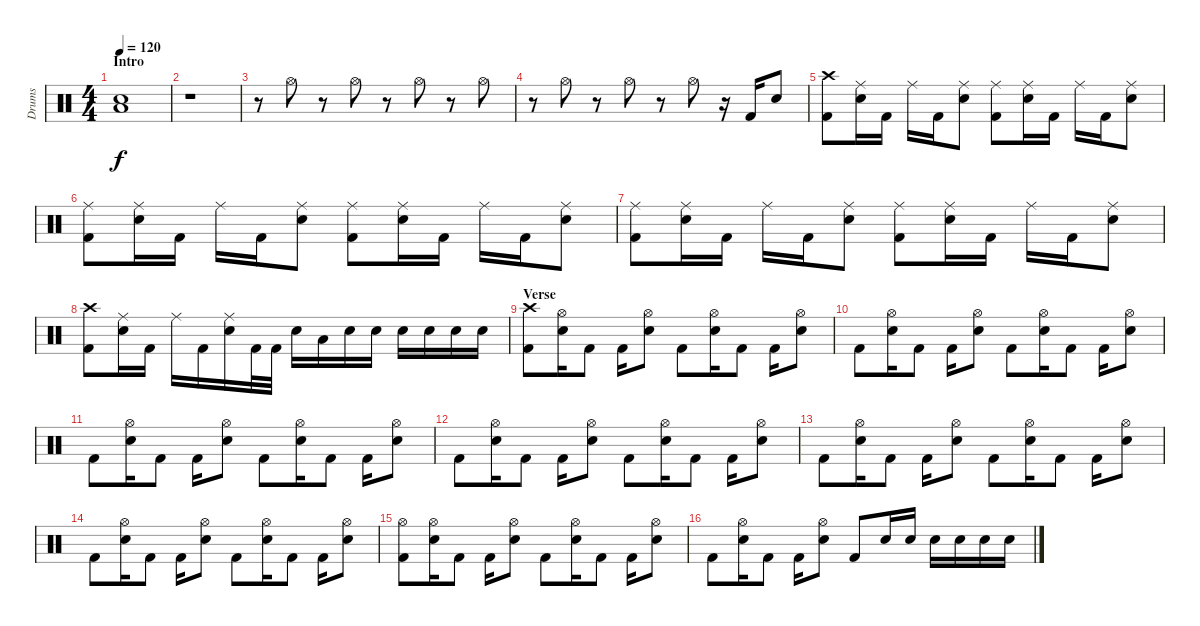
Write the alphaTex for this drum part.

\track ("Drums" "Drums") {instrument percussion}
\staff {score}
\articulation defaults
\ts (4 4)
\section ("" "Intro")
\tempo 120
\clef neutral
\ks c
("Low Floor Tom (hit)" "Snare (hit) 2").1{dy f} |
r.1 |
r.8 "Hi-Hat (open)".8 r.8 "Hi-Hat (open)".8 r.8 "Hi-Hat (open)".8 r.8 "Hi-Hat (open)".8 |
r.8 "Hi-Hat (open)".8 r.8 "Hi-Hat (open)".8 r.8 "Hi-Hat (open)".8 r.16 "Kick (hit) 2".16 "Snare (hit) 2".8 |
("Crash high (hit)" "Kick (hit) 2").8 ("Ride (middle)" "Snare (hit) 2").16 "Kick (hit) 2".16 "Ride (middle)".16 "Kick (hit) 2".16 ("Ride (middle)" "Snare (hit) 2").8 ("Ride (middle)" "Kick (hit) 2").8 ("Ride (middle)" "Snare (hit) 2").16 "Kick (hit) 2".16 "Ride (middle)".16 "Kick (hit) 2".16 ("Ride (middle)" "Snare (hit) 2").8 |
("Ride (middle)" "Kick (hit) 2").8 ("Ride (middle)" "Snare (hit) 2").16 "Kick (hit) 2".16 "Ride (middle)".16 "Kick (hit) 2".16 ("Ride (middle)" "Snare (hit) 2").8 ("Ride (middle)" "Kick (hit) 2").8 ("Ride (middle)" "Snare (hit) 2").16 "Kick (hit) 2".16 "Ride (middle)".16 "Kick (hit) 2".16 ("Ride (middle)" "Snare (hit) 2").8 |
("Ride (middle)" "Kick (hit) 2").8 ("Ride (middle)" "Snare (hit) 2").16 "Kick (hit) 2".16 "Ride (middle)".16 "Kick (hit) 2".16 ("Ride (middle)" "Snare (hit) 2").8 ("Ride (middle)" "Kick (hit) 2").8 ("Ride (middle)" "Snare (hit) 2").16 "Kick (hit) 2".16 "Ride (middle)".16 "Kick (hit) 2".16 ("Ride (middle)" "Snare (hit) 2").8 |
("Crash high (hit)" "Kick (hit) 2").8 ("Ride (middle)" "Snare (hit) 2").16 "Kick (hit) 2".16 "Ride (middle)".16 "Kick (hit) 2".16 ("Ride (middle)" "Snare (hit) 2").16 "Kick (hit) 2".32 "Kick (hit) 2".32 "Snare (hit) 2".16 "Low Tom (hit)".16 "Snare (hit) 2".16 "Snare (hit) 2".16 "Snare (hit) 2".16 "Snare (hit) 2".16 "Snare (hit) 2".16 "Snare (hit) 2".16 |
\section ("" "Verse")
("Crash high (hit)" "Kick (hit) 2").8 ("Hi-Hat (open)" "Snare (hit) 2").16 "Kick (hit) 2".8 "Kick (hit) 2".16 ("Hi-Hat (open)" "Snare (hit) 2").8 "Kick (hit) 2".8 ("Hi-Hat (open)" "Snare (hit) 2").16 "Kick (hit) 2".8 "Kick (hit) 2".16 ("Hi-Hat (open)" "Snare (hit) 2").8 |
"Kick (hit) 2".8 ("Hi-Hat (open)" "Snare (hit) 2").16 "Kick (hit) 2".8 "Kick (hit) 2".16 ("Hi-Hat (open)" "Snare (hit) 2").8 "Kick (hit) 2".8 ("Hi-Hat (open)" "Snare (hit) 2").16 "Kick (hit) 2".8 "Kick (hit) 2".16 ("Hi-Hat (open)" "Snare (hit) 2").8 |
"Kick (hit) 2".8 ("Hi-Hat (open)" "Snare (hit) 2").16 "Kick (hit) 2".8 "Kick (hit) 2".16 ("Hi-Hat (open)" "Snare (hit) 2").8 "Kick (hit) 2".8 ("Hi-Hat (open)" "Snare (hit) 2").16 "Kick (hit) 2".8 "Kick (hit) 2".16 ("Hi-Hat (open)" "Snare (hit) 2").8 |
"Kick (hit) 2".8 ("Hi-Hat (open)" "Snare (hit) 2").16 "Kick (hit) 2".8 "Kick (hit) 2".16 ("Hi-Hat (open)" "Snare (hit) 2").8 "Kick (hit) 2".8 ("Hi-Hat (open)" "Snare (hit) 2").16 "Kick (hit) 2".8 "Kick (hit) 2".16 ("Hi-Hat (open)" "Snare (hit) 2").8 |
"Kick (hit) 2".8 ("Hi-Hat (open)" "Snare (hit) 2").16 "Kick (hit) 2".8 "Kick (hit) 2".16 ("Hi-Hat (open)" "Snare (hit) 2").8 "Kick (hit) 2".8 ("Hi-Hat (open)" "Snare (hit) 2").16 "Kick (hit) 2".8 "Kick (hit) 2".16 ("Hi-Hat (open)" "Snare (hit) 2").8 |
"Kick (hit) 2".8 ("Hi-Hat (open)" "Snare (hit) 2").16 "Kick (hit) 2".8 "Kick (hit) 2".16 ("Hi-Hat (open)" "Snare (hit) 2").8 "Kick (hit) 2".8 ("Hi-Hat (open)" "Snare (hit) 2").16 "Kick (hit) 2".8 "Kick (hit) 2".16 ("Hi-Hat (open)" "Snare (hit) 2").8 |
("Hi-Hat (open)" "Kick (hit) 2").8 ("Hi-Hat (open)" "Snare (hit) 2").16 "Kick (hit) 2".8 "Kick (hit) 2".16 ("Hi-Hat (open)" "Snare (hit) 2").8 "Kick (hit) 2".8 ("Hi-Hat (open)" "Snare (hit) 2").16 "Kick (hit) 2".8 "Kick (hit) 2".16 ("Hi-Hat (open)" "Snare (hit) 2").8 |
"Kick (hit) 2".8 ("Hi-Hat (open)" "Snare (hit) 2").16 "Kick (hit) 2".8 "Kick (hit) 2".16 ("Hi-Hat (open)" "Snare (hit) 2").8 "Kick (hit) 2".8 "Snare (hit) 2".16 "Snare (hit) 2".16 "Snare (hit) 2".16 "Snare (hit) 2".16 "Snare (hit) 2".16 "Snare (hit) 2".16
